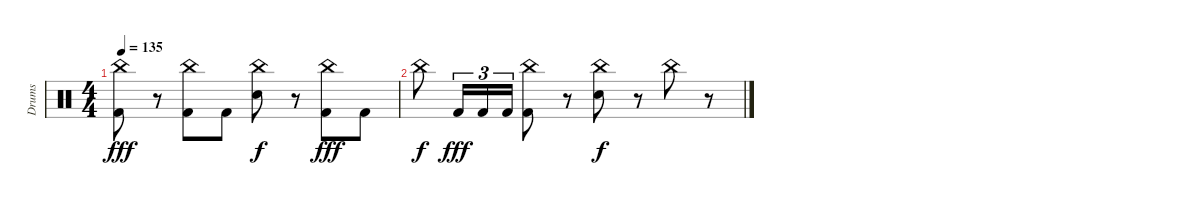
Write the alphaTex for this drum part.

\track ("Drums" "Drums") {instrument percussion}
\staff {score}
\articulation defaults
\ts (4 4)
\tempo 135
\clef neutral
\ks c
("China (hit)" "Kick (hit) 2").8{dy fff} r.8 ("China (hit)" "Kick (hit) 2").8 "Kick (hit) 2".8 ("China (hit)" "Snare (hit) 2").8{dy f} r.8 ("China (hit)" "Kick (hit) 2").8{dy fff} "Kick (hit) 2".8 |
"China (hit)".8{dy f} "Kick (hit) 2".16{tu (3 2) dy fff} "Kick (hit) 2".16{tu (3 2)} "Kick (hit) 2".16{tu (3 2)} ("China (hit)" "Kick (hit) 2").8 r.8 ("China (hit)" "Snare (hit) 2").8{dy f} r.8 "China (hit)".8 r.8
